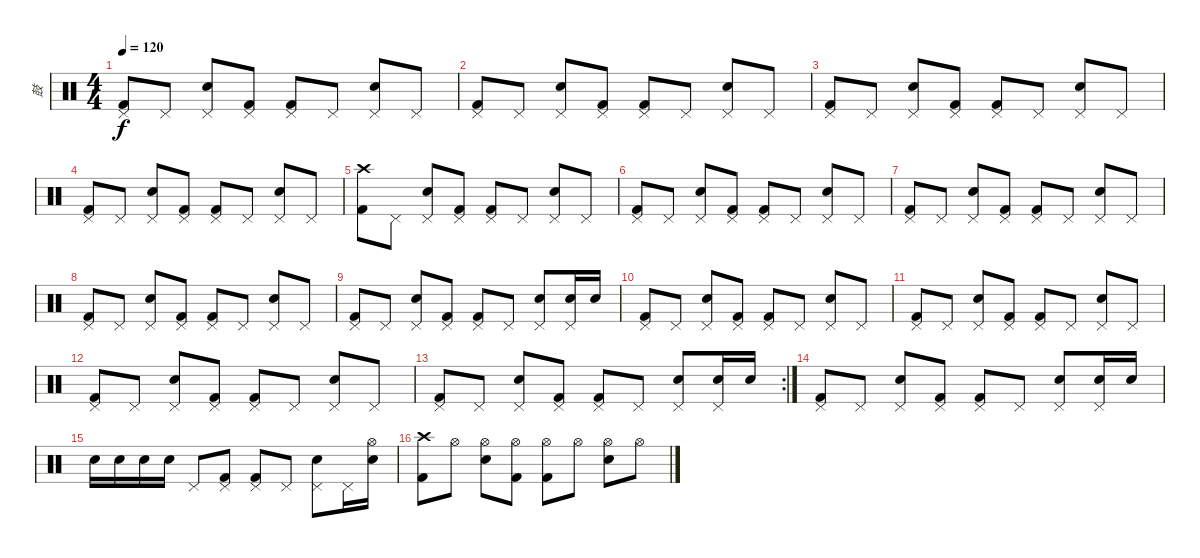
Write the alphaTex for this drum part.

\track ("鼓" "鼓") {instrument percussion}
\staff {score}
\articulation defaults
\ts (4 4)
\tempo 120
\clef neutral
\ks c
("Pedal Hi-Hat (hit)" "Kick (hit) 2").8{dy f} "Pedal Hi-Hat (hit)".8 ("Pedal Hi-Hat (hit)" "Electric Snare (hit)").8 ("Pedal Hi-Hat (hit)" "Kick (hit) 2").8 ("Pedal Hi-Hat (hit)" "Kick (hit) 2").8 "Pedal Hi-Hat (hit)".8 ("Pedal Hi-Hat (hit)" "Electric Snare (hit)").8 "Pedal Hi-Hat (hit)".8 |
("Pedal Hi-Hat (hit)" "Kick (hit) 2").8 "Pedal Hi-Hat (hit)".8 ("Pedal Hi-Hat (hit)" "Electric Snare (hit)").8 ("Pedal Hi-Hat (hit)" "Kick (hit) 2").8 ("Pedal Hi-Hat (hit)" "Kick (hit) 2").8 "Pedal Hi-Hat (hit)".8 ("Pedal Hi-Hat (hit)" "Electric Snare (hit)").8 "Pedal Hi-Hat (hit)".8 |
("Pedal Hi-Hat (hit)" "Kick (hit) 2").8 "Pedal Hi-Hat (hit)".8 ("Pedal Hi-Hat (hit)" "Electric Snare (hit)").8 ("Pedal Hi-Hat (hit)" "Kick (hit) 2").8 ("Pedal Hi-Hat (hit)" "Kick (hit) 2").8 "Pedal Hi-Hat (hit)".8 ("Pedal Hi-Hat (hit)" "Electric Snare (hit)").8 "Pedal Hi-Hat (hit)".8 |
("Pedal Hi-Hat (hit)" "Kick (hit) 2").8 "Pedal Hi-Hat (hit)".8 ("Pedal Hi-Hat (hit)" "Electric Snare (hit)").8 ("Pedal Hi-Hat (hit)" "Kick (hit) 2").8 ("Pedal Hi-Hat (hit)" "Kick (hit) 2").8 "Pedal Hi-Hat (hit)".8 ("Pedal Hi-Hat (hit)" "Electric Snare (hit)").8 "Pedal Hi-Hat (hit)".8 |
("Crash high (hit)" "Kick (hit) 2").8 "Pedal Hi-Hat (hit)".8 ("Pedal Hi-Hat (hit)" "Electric Snare (hit)").8 ("Pedal Hi-Hat (hit)" "Kick (hit) 2").8 ("Pedal Hi-Hat (hit)" "Kick (hit) 2").8 "Pedal Hi-Hat (hit)".8 ("Pedal Hi-Hat (hit)" "Electric Snare (hit)").8 "Pedal Hi-Hat (hit)".8 |
("Pedal Hi-Hat (hit)" "Kick (hit) 2").8 "Pedal Hi-Hat (hit)".8 ("Pedal Hi-Hat (hit)" "Electric Snare (hit)").8 ("Pedal Hi-Hat (hit)" "Kick (hit) 2").8 ("Pedal Hi-Hat (hit)" "Kick (hit) 2").8 "Pedal Hi-Hat (hit)".8 ("Pedal Hi-Hat (hit)" "Electric Snare (hit)").8 "Pedal Hi-Hat (hit)".8 |
("Pedal Hi-Hat (hit)" "Kick (hit) 2").8 "Pedal Hi-Hat (hit)".8 ("Pedal Hi-Hat (hit)" "Electric Snare (hit)").8 ("Pedal Hi-Hat (hit)" "Kick (hit) 2").8 ("Pedal Hi-Hat (hit)" "Kick (hit) 2").8 "Pedal Hi-Hat (hit)".8 ("Pedal Hi-Hat (hit)" "Electric Snare (hit)").8 "Pedal Hi-Hat (hit)".8 |
("Pedal Hi-Hat (hit)" "Kick (hit) 2").8 "Pedal Hi-Hat (hit)".8 ("Pedal Hi-Hat (hit)" "Electric Snare (hit)").8 ("Pedal Hi-Hat (hit)" "Kick (hit) 2").8 ("Pedal Hi-Hat (hit)" "Kick (hit) 2").8 "Pedal Hi-Hat (hit)".8 ("Pedal Hi-Hat (hit)" "Electric Snare (hit)").8 "Pedal Hi-Hat (hit)".8 |
("Pedal Hi-Hat (hit)" "Kick (hit) 2").8 "Pedal Hi-Hat (hit)".8 ("Pedal Hi-Hat (hit)" "Electric Snare (hit)").8 ("Pedal Hi-Hat (hit)" "Kick (hit) 2").8 ("Pedal Hi-Hat (hit)" "Kick (hit) 2").8 "Pedal Hi-Hat (hit)".8 ("Pedal Hi-Hat (hit)" "Electric Snare (hit)").8 ("Pedal Hi-Hat (hit)" "Electric Snare (hit)").16 "Electric Snare (hit)".16 |
("Pedal Hi-Hat (hit)" "Kick (hit) 2").8 "Pedal Hi-Hat (hit)".8 ("Pedal Hi-Hat (hit)" "Electric Snare (hit)").8 ("Pedal Hi-Hat (hit)" "Kick (hit) 2").8 ("Pedal Hi-Hat (hit)" "Kick (hit) 2").8 "Pedal Hi-Hat (hit)".8 ("Pedal Hi-Hat (hit)" "Electric Snare (hit)").8 "Pedal Hi-Hat (hit)".8 |
("Pedal Hi-Hat (hit)" "Kick (hit) 2").8 "Pedal Hi-Hat (hit)".8 ("Pedal Hi-Hat (hit)" "Electric Snare (hit)").8 ("Pedal Hi-Hat (hit)" "Kick (hit) 2").8 ("Pedal Hi-Hat (hit)" "Kick (hit) 2").8 "Pedal Hi-Hat (hit)".8 ("Pedal Hi-Hat (hit)" "Electric Snare (hit)").8 "Pedal Hi-Hat (hit)".8 |
("Pedal Hi-Hat (hit)" "Kick (hit) 2").8 "Pedal Hi-Hat (hit)".8 ("Pedal Hi-Hat (hit)" "Electric Snare (hit)").8 ("Pedal Hi-Hat (hit)" "Kick (hit) 2").8 ("Pedal Hi-Hat (hit)" "Kick (hit) 2").8 "Pedal Hi-Hat (hit)".8 ("Pedal Hi-Hat (hit)" "Electric Snare (hit)").8 "Pedal Hi-Hat (hit)".8 |
\rc 2
("Pedal Hi-Hat (hit)" "Kick (hit) 2").8 "Pedal Hi-Hat (hit)".8 ("Pedal Hi-Hat (hit)" "Electric Snare (hit)").8 ("Pedal Hi-Hat (hit)" "Kick (hit) 2").8 ("Pedal Hi-Hat (hit)" "Kick (hit) 2").8 "Pedal Hi-Hat (hit)".8 ("Pedal Hi-Hat (hit)" "Electric Snare (hit)").8 ("Pedal Hi-Hat (hit)" "Electric Snare (hit)").16 "Electric Snare (hit)".16 |
("Pedal Hi-Hat (hit)" "Kick (hit) 2").8 "Pedal Hi-Hat (hit)".8 ("Pedal Hi-Hat (hit)" "Electric Snare (hit)").8 ("Pedal Hi-Hat (hit)" "Kick (hit) 2").8 ("Pedal Hi-Hat (hit)" "Kick (hit) 2").8 "Pedal Hi-Hat (hit)".8 ("Pedal Hi-Hat (hit)" "Electric Snare (hit)").8 ("Pedal Hi-Hat (hit)" "Electric Snare (hit)").16 "Electric Snare (hit)".16 |
"Electric Snare (hit)".16 "Electric Snare (hit)".16 "Electric Snare (hit)".16 "Electric Snare (hit)".16 "Pedal Hi-Hat (hit)".8 ("Pedal Hi-Hat (hit)" "Kick (hit) 2").8 ("Pedal Hi-Hat (hit)" "Kick (hit) 2").8 "Pedal Hi-Hat (hit)".8 ("Pedal Hi-Hat (hit)" "Electric Snare (hit)").8 "Pedal Hi-Hat (hit)".16 ("Hi-Hat (open)" "Electric Snare (hit)").16 |
("Crash high (hit)" "Kick (hit) 2").8 "Hi-Hat (open)".8 ("Hi-Hat (open)" "Electric Snare (hit)").8 ("Hi-Hat (open)" "Kick (hit) 2").8 ("Hi-Hat (open)" "Kick (hit) 2").8 "Hi-Hat (open)".8 ("Hi-Hat (open)" "Electric Snare (hit)").8 "Hi-Hat (open)".8
